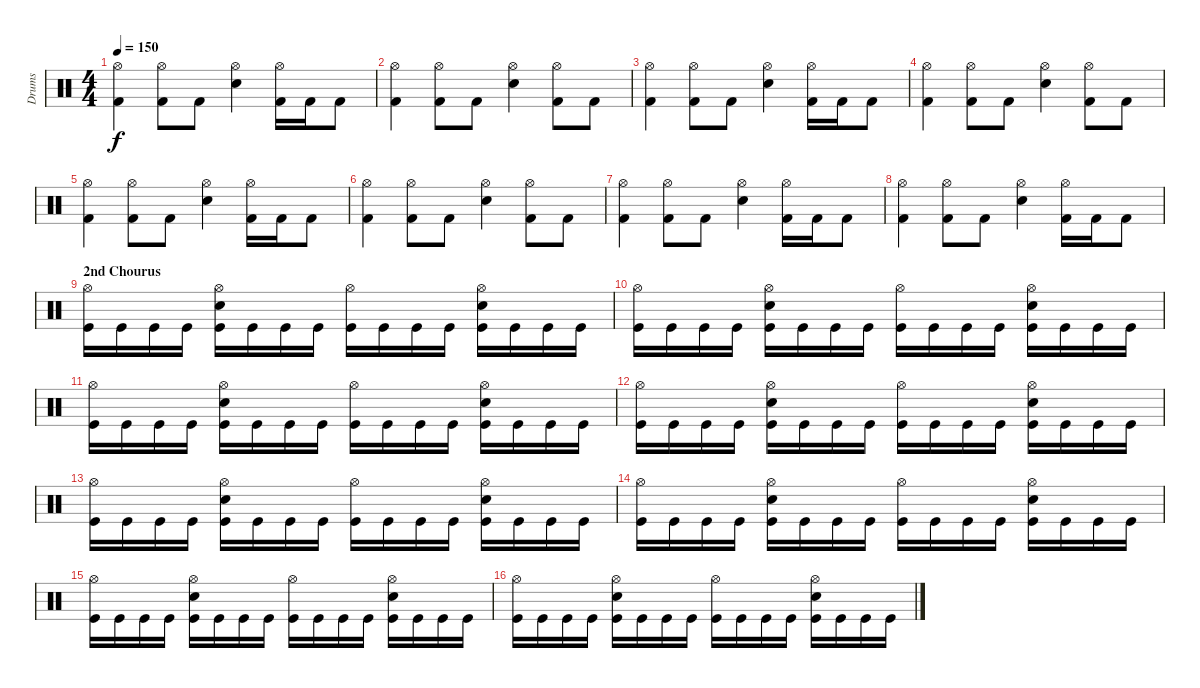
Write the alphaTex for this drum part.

\track ("Drums" "Drums") {instrument percussion}
\staff {score}
\articulation defaults
\ts (4 4)
\tempo 150
\clef neutral
\ks c
("Hi-Hat (open)" "Kick (hit) 2").4{dy f} ("Hi-Hat (open)" "Kick (hit) 2").8 "Kick (hit) 2".8 ("Hi-Hat (open)" "Snare (hit) 2").4 ("Hi-Hat (open)" "Kick (hit) 2").16 "Kick (hit) 2".16 "Kick (hit) 2".8 |
("Hi-Hat (open)" "Kick (hit) 2").4 ("Hi-Hat (open)" "Kick (hit) 2").8 "Kick (hit) 2".8 ("Hi-Hat (open)" "Snare (hit) 2").4 ("Hi-Hat (open)" "Kick (hit) 2").8 "Kick (hit) 2".8 |
("Hi-Hat (open)" "Kick (hit) 2").4 ("Hi-Hat (open)" "Kick (hit) 2").8 "Kick (hit) 2".8 ("Hi-Hat (open)" "Snare (hit) 2").4 ("Hi-Hat (open)" "Kick (hit) 2").16 "Kick (hit) 2".16 "Kick (hit) 2".8 |
("Hi-Hat (open)" "Kick (hit) 2").4 ("Hi-Hat (open)" "Kick (hit) 2").8 "Kick (hit) 2".8 ("Hi-Hat (open)" "Snare (hit) 2").4 ("Hi-Hat (open)" "Kick (hit) 2").8 "Kick (hit) 2".8 |
("Hi-Hat (open)" "Kick (hit) 2").4 ("Hi-Hat (open)" "Kick (hit) 2").8 "Kick (hit) 2".8 ("Hi-Hat (open)" "Snare (hit) 2").4 ("Hi-Hat (open)" "Kick (hit) 2").16 "Kick (hit) 2".16 "Kick (hit) 2".8 |
("Hi-Hat (open)" "Kick (hit) 2").4 ("Hi-Hat (open)" "Kick (hit) 2").8 "Kick (hit) 2".8 ("Hi-Hat (open)" "Snare (hit) 2").4 ("Hi-Hat (open)" "Kick (hit) 2").8 "Kick (hit) 2".8 |
("Hi-Hat (open)" "Kick (hit) 2").4 ("Hi-Hat (open)" "Kick (hit) 2").8 "Kick (hit) 2".8 ("Hi-Hat (open)" "Snare (hit) 2").4 ("Hi-Hat (open)" "Kick (hit) 2").16 "Kick (hit) 2".16 "Kick (hit) 2".8 |
("Hi-Hat (open)" "Kick (hit) 2").4 ("Hi-Hat (open)" "Kick (hit) 2").8 "Kick (hit) 2".8 ("Hi-Hat (open)" "Snare (hit) 2").4 ("Hi-Hat (open)" "Kick (hit) 2").16 "Kick (hit) 2".16 "Kick (hit) 2".8 |
\section ("" "2nd Chourus")
("Hi-Hat (open)" "Kick (hit)").16 "Kick (hit)".16 "Kick (hit)".16 "Kick (hit)".16 ("Hi-Hat (open)" "Snare (hit) 2" "Kick (hit)").16 "Kick (hit)".16 "Kick (hit)".16 "Kick (hit)".16 ("Hi-Hat (open)" "Kick (hit)").16 "Kick (hit)".16 "Kick (hit)".16 "Kick (hit)".16 ("Hi-Hat (open)" "Snare (hit) 2" "Kick (hit)").16 "Kick (hit)".16 "Kick (hit)".16 "Kick (hit)".16 |
("Hi-Hat (open)" "Kick (hit)").16 "Kick (hit)".16 "Kick (hit)".16 "Kick (hit)".16 ("Hi-Hat (open)" "Snare (hit) 2" "Kick (hit)").16 "Kick (hit)".16 "Kick (hit)".16 "Kick (hit)".16 ("Hi-Hat (open)" "Kick (hit)").16 "Kick (hit)".16 "Kick (hit)".16 "Kick (hit)".16 ("Hi-Hat (open)" "Snare (hit) 2" "Kick (hit)").16 "Kick (hit)".16 "Kick (hit)".16 "Kick (hit)".16 |
("Hi-Hat (open)" "Kick (hit)").16 "Kick (hit)".16 "Kick (hit)".16 "Kick (hit)".16 ("Hi-Hat (open)" "Snare (hit) 2" "Kick (hit)").16 "Kick (hit)".16 "Kick (hit)".16 "Kick (hit)".16 ("Hi-Hat (open)" "Kick (hit)").16 "Kick (hit)".16 "Kick (hit)".16 "Kick (hit)".16 ("Hi-Hat (open)" "Snare (hit) 2" "Kick (hit)").16 "Kick (hit)".16 "Kick (hit)".16 "Kick (hit)".16 |
("Hi-Hat (open)" "Kick (hit)").16 "Kick (hit)".16 "Kick (hit)".16 "Kick (hit)".16 ("Hi-Hat (open)" "Snare (hit) 2" "Kick (hit)").16 "Kick (hit)".16 "Kick (hit)".16 "Kick (hit)".16 ("Hi-Hat (open)" "Kick (hit)").16 "Kick (hit)".16 "Kick (hit)".16 "Kick (hit)".16 ("Hi-Hat (open)" "Snare (hit) 2" "Kick (hit)").16 "Kick (hit)".16 "Kick (hit)".16 "Kick (hit)".16 |
("Hi-Hat (open)" "Kick (hit)").16 "Kick (hit)".16 "Kick (hit)".16 "Kick (hit)".16 ("Hi-Hat (open)" "Snare (hit) 2" "Kick (hit)").16 "Kick (hit)".16 "Kick (hit)".16 "Kick (hit)".16 ("Hi-Hat (open)" "Kick (hit)").16 "Kick (hit)".16 "Kick (hit)".16 "Kick (hit)".16 ("Hi-Hat (open)" "Snare (hit) 2" "Kick (hit)").16 "Kick (hit)".16 "Kick (hit)".16 "Kick (hit)".16 |
("Hi-Hat (open)" "Kick (hit)").16 "Kick (hit)".16 "Kick (hit)".16 "Kick (hit)".16 ("Hi-Hat (open)" "Snare (hit) 2" "Kick (hit)").16 "Kick (hit)".16 "Kick (hit)".16 "Kick (hit)".16 ("Hi-Hat (open)" "Kick (hit)").16 "Kick (hit)".16 "Kick (hit)".16 "Kick (hit)".16 ("Hi-Hat (open)" "Snare (hit) 2" "Kick (hit)").16 "Kick (hit)".16 "Kick (hit)".16 "Kick (hit)".16 |
("Hi-Hat (open)" "Kick (hit)").16 "Kick (hit)".16 "Kick (hit)".16 "Kick (hit)".16 ("Hi-Hat (open)" "Snare (hit) 2" "Kick (hit)").16 "Kick (hit)".16 "Kick (hit)".16 "Kick (hit)".16 ("Hi-Hat (open)" "Kick (hit)").16 "Kick (hit)".16 "Kick (hit)".16 "Kick (hit)".16 ("Hi-Hat (open)" "Snare (hit) 2" "Kick (hit)").16 "Kick (hit)".16 "Kick (hit)".16 "Kick (hit)".16 |
("Hi-Hat (open)" "Kick (hit)").16 "Kick (hit)".16 "Kick (hit)".16 "Kick (hit)".16 ("Hi-Hat (open)" "Snare (hit) 2" "Kick (hit)").16 "Kick (hit)".16 "Kick (hit)".16 "Kick (hit)".16 ("Hi-Hat (open)" "Kick (hit)").16 "Kick (hit)".16 "Kick (hit)".16 "Kick (hit)".16 ("Hi-Hat (open)" "Snare (hit) 2" "Kick (hit)").16 "Kick (hit)".16 "Kick (hit)".16 "Kick (hit)".16
